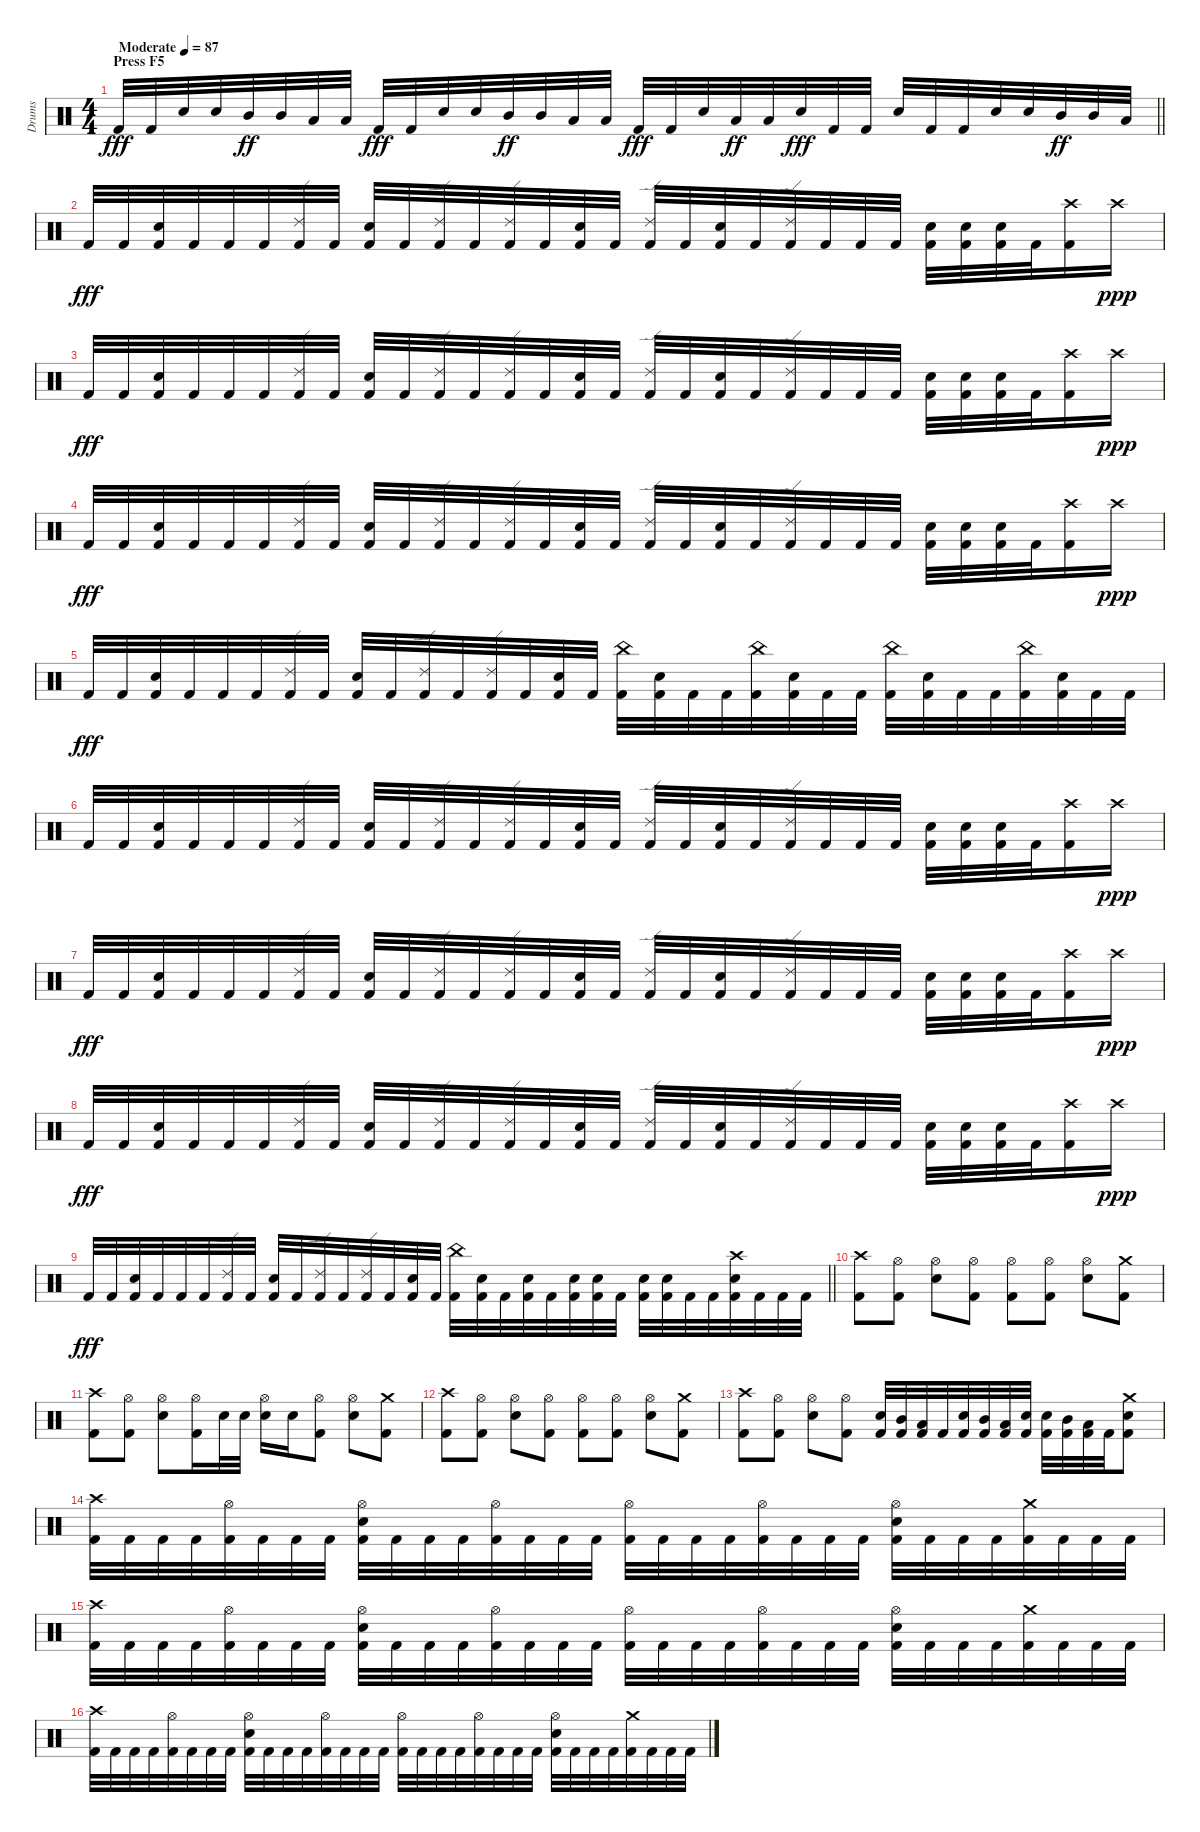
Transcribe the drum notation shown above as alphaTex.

\track ("Drums" "Drums") {instrument percussion}
\staff {score}
\articulation defaults
\ts (4 4)
\section ("" "Press F5")
\tempo (87 "Moderate")
\clef neutral
\barLineRight lightlight
\ks c "Kick (hit) 2".32{dy fff} "Kick (hit) 2".32 "Snare (hit) 2".32 "Snare (hit) 2".32 "Mid Tom (hit)".32{dy ff} "Mid Tom (hit)".32 "Low Tom (hit)".32 "Low Tom (hit)".32 "Kick (hit) 2".32{dy fff} "Kick (hit) 2".32 "Snare (hit) 2".32 "Snare (hit) 2".32 "Mid Tom (hit)".32{dy ff} "Mid Tom (hit)".32 "Low Tom (hit)".32 "Low Tom (hit)".32 "Kick (hit) 2".32{dy fff} "Kick (hit) 2".32 "Snare (hit) 2".32 "Low Tom (hit)".32{dy ff} "Low Tom (hit)".32 "Snare (hit) 2".32{dy fff} "Kick (hit) 2".32 "Kick (hit) 2".32 "Snare (hit) 2".32 "Kick (hit) 2".32 "Kick (hit) 2".32 "Snare (hit) 2".32 "Snare (hit) 2".32 "Mid Tom (hit)".32{dy ff} "Mid Tom (hit)".32 "Low Tom (hit)".32
|
"Kick (hit) 2".32{dy fff} "Kick (hit) 2".32 ("Snare (hit) 2" "Kick (hit) 2").32 "Kick (hit) 2".32 "Kick (hit) 2".32 "Kick (hit) 2".32 ("Ride (edge) 2" "Kick (hit) 2").32 "Kick (hit) 2".32 ("Snare (hit) 2" "Kick (hit) 2").32 "Kick (hit) 2".32 ("Ride (edge) 2" "Kick (hit) 2").32 "Kick (hit) 2".32 ("Ride (edge) 2" "Kick (hit) 2").32 "Kick (hit) 2".32 ("Snare (hit) 2" "Kick (hit) 2").32 "Kick (hit) 2".32 ("Ride (edge) 2" "Kick (hit) 2").32 "Kick (hit) 2".32 ("Snare (hit) 2" "Kick (hit) 2").32 "Kick (hit) 2".32 ("Ride (edge) 2" "Kick (hit) 2").32 "Kick (hit) 2".32 "Kick (hit) 2".32 "Kick (hit) 2".32 ("Snare (hit) 2" "Kick (hit) 2").32 ("Snare (hit) 2" "Kick (hit) 2").32 ("Snare (hit) 2" "Kick (hit) 2").32 "Kick (hit) 2".32 ("Crash high (hit)" "Kick (hit) 2").16 "Crash high (hit)".16{dy ppp} |
"Kick (hit) 2".32{dy fff} "Kick (hit) 2".32 ("Snare (hit) 2" "Kick (hit) 2").32 "Kick (hit) 2".32 "Kick (hit) 2".32 "Kick (hit) 2".32 ("Ride (edge) 2" "Kick (hit) 2").32 "Kick (hit) 2".32 ("Snare (hit) 2" "Kick (hit) 2").32 "Kick (hit) 2".32 ("Ride (edge) 2" "Kick (hit) 2").32 "Kick (hit) 2".32 ("Ride (edge) 2" "Kick (hit) 2").32 "Kick (hit) 2".32 ("Snare (hit) 2" "Kick (hit) 2").32 "Kick (hit) 2".32 ("Ride (edge) 2" "Kick (hit) 2").32 "Kick (hit) 2".32 ("Snare (hit) 2" "Kick (hit) 2").32 "Kick (hit) 2".32 ("Ride (edge) 2" "Kick (hit) 2").32 "Kick (hit) 2".32 "Kick (hit) 2".32 "Kick (hit) 2".32 ("Snare (hit) 2" "Kick (hit) 2").32 ("Snare (hit) 2" "Kick (hit) 2").32 ("Snare (hit) 2" "Kick (hit) 2").32 "Kick (hit) 2".32 ("Crash high (hit)" "Kick (hit) 2").16 "Crash high (hit)".16{dy ppp} |
"Kick (hit) 2".32{dy fff} "Kick (hit) 2".32 ("Snare (hit) 2" "Kick (hit) 2").32 "Kick (hit) 2".32 "Kick (hit) 2".32 "Kick (hit) 2".32 ("Ride (edge) 2" "Kick (hit) 2").32 "Kick (hit) 2".32 ("Snare (hit) 2" "Kick (hit) 2").32 "Kick (hit) 2".32 ("Ride (edge) 2" "Kick (hit) 2").32 "Kick (hit) 2".32 ("Ride (edge) 2" "Kick (hit) 2").32 "Kick (hit) 2".32 ("Snare (hit) 2" "Kick (hit) 2").32 "Kick (hit) 2".32 ("Ride (edge) 2" "Kick (hit) 2").32 "Kick (hit) 2".32 ("Snare (hit) 2" "Kick (hit) 2").32 "Kick (hit) 2".32 ("Ride (edge) 2" "Kick (hit) 2").32 "Kick (hit) 2".32 "Kick (hit) 2".32 "Kick (hit) 2".32 ("Snare (hit) 2" "Kick (hit) 2").32 ("Snare (hit) 2" "Kick (hit) 2").32 ("Snare (hit) 2" "Kick (hit) 2").32 "Kick (hit) 2".32 ("Crash high (hit)" "Kick (hit) 2").16 "Crash high (hit)".16{dy ppp} |
"Kick (hit) 2".32{dy fff} "Kick (hit) 2".32 ("Snare (hit) 2" "Kick (hit) 2").32 "Kick (hit) 2".32 "Kick (hit) 2".32 "Kick (hit) 2".32 ("Ride (edge) 2" "Kick (hit) 2").32 "Kick (hit) 2".32 ("Snare (hit) 2" "Kick (hit) 2").32 "Kick (hit) 2".32 ("Ride (edge) 2" "Kick (hit) 2").32 "Kick (hit) 2".32 ("Ride (edge) 2" "Kick (hit) 2").32 "Kick (hit) 2".32 ("Snare (hit) 2" "Kick (hit) 2").32 "Kick (hit) 2".32 ("China (hit)" "Kick (hit) 2").32 ("Snare (hit) 2" "Kick (hit) 2").32 "Kick (hit) 2".32 "Kick (hit) 2".32 ("China (hit)" "Kick (hit) 2").32 ("Snare (hit) 2" "Kick (hit) 2").32 "Kick (hit) 2".32 "Kick (hit) 2".32 ("China (hit)" "Kick (hit) 2").32 ("Snare (hit) 2" "Kick (hit) 2").32 "Kick (hit) 2".32 "Kick (hit) 2".32 ("China (hit)" "Kick (hit) 2").32 ("Snare (hit) 2" "Kick (hit) 2").32 "Kick (hit) 2".32 "Kick (hit) 2".32 |
"Kick (hit) 2".32 "Kick (hit) 2".32 ("Snare (hit) 2" "Kick (hit) 2").32 "Kick (hit) 2".32 "Kick (hit) 2".32 "Kick (hit) 2".32 ("Ride (edge) 2" "Kick (hit) 2").32 "Kick (hit) 2".32 ("Snare (hit) 2" "Kick (hit) 2").32 "Kick (hit) 2".32 ("Ride (edge) 2" "Kick (hit) 2").32 "Kick (hit) 2".32 ("Ride (edge) 2" "Kick (hit) 2").32 "Kick (hit) 2".32 ("Snare (hit) 2" "Kick (hit) 2").32 "Kick (hit) 2".32 ("Ride (edge) 2" "Kick (hit) 2").32 "Kick (hit) 2".32 ("Snare (hit) 2" "Kick (hit) 2").32 "Kick (hit) 2".32 ("Ride (edge) 2" "Kick (hit) 2").32 "Kick (hit) 2".32 "Kick (hit) 2".32 "Kick (hit) 2".32 ("Snare (hit) 2" "Kick (hit) 2").32 ("Snare (hit) 2" "Kick (hit) 2").32 ("Snare (hit) 2" "Kick (hit) 2").32 "Kick (hit) 2".32 ("Crash high (hit)" "Kick (hit) 2").16 "Crash high (hit)".16{dy ppp} |
"Kick (hit) 2".32{dy fff} "Kick (hit) 2".32 ("Snare (hit) 2" "Kick (hit) 2").32 "Kick (hit) 2".32 "Kick (hit) 2".32 "Kick (hit) 2".32 ("Ride (edge) 2" "Kick (hit) 2").32 "Kick (hit) 2".32 ("Snare (hit) 2" "Kick (hit) 2").32 "Kick (hit) 2".32 ("Ride (edge) 2" "Kick (hit) 2").32 "Kick (hit) 2".32 ("Ride (edge) 2" "Kick (hit) 2").32 "Kick (hit) 2".32 ("Snare (hit) 2" "Kick (hit) 2").32 "Kick (hit) 2".32 ("Ride (edge) 2" "Kick (hit) 2").32 "Kick (hit) 2".32 ("Snare (hit) 2" "Kick (hit) 2").32 "Kick (hit) 2".32 ("Ride (edge) 2" "Kick (hit) 2").32 "Kick (hit) 2".32 "Kick (hit) 2".32 "Kick (hit) 2".32 ("Snare (hit) 2" "Kick (hit) 2").32 ("Snare (hit) 2" "Kick (hit) 2").32 ("Snare (hit) 2" "Kick (hit) 2").32 "Kick (hit) 2".32 ("Crash high (hit)" "Kick (hit) 2").16 "Crash high (hit)".16{dy ppp} |
"Kick (hit) 2".32{dy fff} "Kick (hit) 2".32 ("Snare (hit) 2" "Kick (hit) 2").32 "Kick (hit) 2".32 "Kick (hit) 2".32 "Kick (hit) 2".32 ("Ride (edge) 2" "Kick (hit) 2").32 "Kick (hit) 2".32 ("Snare (hit) 2" "Kick (hit) 2").32 "Kick (hit) 2".32 ("Ride (edge) 2" "Kick (hit) 2").32 "Kick (hit) 2".32 ("Ride (edge) 2" "Kick (hit) 2").32 "Kick (hit) 2".32 ("Snare (hit) 2" "Kick (hit) 2").32 "Kick (hit) 2".32 ("Ride (edge) 2" "Kick (hit) 2").32 "Kick (hit) 2".32 ("Snare (hit) 2" "Kick (hit) 2").32 "Kick (hit) 2".32 ("Ride (edge) 2" "Kick (hit) 2").32 "Kick (hit) 2".32 "Kick (hit) 2".32 "Kick (hit) 2".32 ("Snare (hit) 2" "Kick (hit) 2").32 ("Snare (hit) 2" "Kick (hit) 2").32 ("Snare (hit) 2" "Kick (hit) 2").32 "Kick (hit) 2".32 ("Crash high (hit)" "Kick (hit) 2").16 "Crash high (hit)".16{dy ppp} |
\barLineRight lightlight "Kick (hit) 2".32{dy fff} "Kick (hit) 2".32
("Snare (hit) 2" "Kick (hit) 2").32 "Kick (hit) 2".32 "Kick (hit) 2".32 "Kick (hit) 2".32 ("Ride (edge) 2" "Kick (hit) 2").32 "Kick (hit) 2".32 ("Snare (hit) 2" "Kick (hit) 2").32 "Kick (hit) 2".32 ("Ride (edge) 2" "Kick (hit) 2").32 "Kick (hit) 2".32 ("Ride (edge) 2" "Kick (hit) 2").32 "Kick (hit) 2".32 ("Snare (hit) 2" "Kick (hit) 2").32 "Kick (hit) 2".32 ("China (hit)" "Kick (hit) 2").32 ("Snare (hit) 2" "Kick (hit) 2").32 "Kick (hit) 2".32 ("Snare (hit) 2" "Kick (hit) 2").32 "Kick (hit) 2".32 ("Snare (hit) 2" "Kick (hit) 2").32 ("Snare (hit) 2" "Kick (hit) 2").32 "Kick (hit) 2".32 ("Snare (hit) 2" "Kick (hit) 2").32 ("Snare (hit) 2" "Kick (hit) 2").32 "Kick (hit) 2".32 "Kick (hit) 2".32 ("Crash high (hit)" "Snare (hit) 2" "Kick (hit) 2").32 "Kick (hit) 2".32 "Kick (hit) 2".32 "Kick (hit) 2".32 |
\section ("" "")
("Crash high (hit)" "Kick (hit) 2").8 ("Hi-Hat (open)" "Kick (hit) 2").8 ("Hi-Hat (open)" "Snare (hit) 2").8 ("Hi-Hat (open)" "Kick (hit) 2").8 ("Hi-Hat (open)" "Kick (hit) 2").8 ("Hi-Hat (open)" "Kick (hit) 2").8 ("Hi-Hat (open)" "Snare (hit) 2").8 ("Crash medium (hit)" "Kick (hit) 2").8 |
("Crash high (hit)" "Kick (hit) 2").8 ("Hi-Hat (open)" "Kick (hit) 2").8 ("Hi-Hat (open)" "Snare (hit) 2").8 ("Hi-Hat (open)" "Kick (hit) 2").16 "Snare (hit) 2".32 "Snare (hit) 2".32 ("Hi-Hat (open)" "Snare (hit) 2").16 "Snare (hit) 2".16 ("Hi-Hat (open)" "Kick (hit) 2").8 ("Hi-Hat (open)" "Snare (hit) 2").8 ("Crash medium (hit)" "Kick (hit) 2").8 |
("Crash high (hit)" "Kick (hit) 2").8 ("Hi-Hat (open)" "Kick (hit) 2").8 ("Hi-Hat (open)" "Snare (hit) 2").8 ("Hi-Hat (open)" "Kick (hit) 2").8 ("Hi-Hat (open)" "Kick (hit) 2").8 ("Hi-Hat (open)" "Kick (hit) 2").8 ("Hi-Hat (open)" "Snare (hit) 2").8 ("Crash medium (hit)" "Kick (hit) 2").8 |
("Crash high (hit)" "Kick (hit) 2").8 ("Hi-Hat (open)" "Kick (hit) 2").8 ("Hi-Hat (open)" "Snare (hit) 2").8 ("Hi-Hat (open)" "Kick (hit) 2").8 ("Snare (hit) 2" "Kick (hit) 2").32 ("Mid Tom (hit)" "Kick (hit) 2").32 ("Low Tom (hit)" "Kick (hit) 2").32 "Kick (hit) 2".32 ("Snare (hit) 2" "Kick (hit) 2").32 ("Mid Tom (hit)" "Kick (hit) 2").32 ("Low Tom (hit)" "Kick (hit) 2").32 ("Snare (hit) 2" "Kick (hit) 2").32 ("Snare (hit) 2" "Kick (hit) 2").32 ("Mid Tom (hit)" "Kick (hit) 2").32 ("Low Tom (hit)" "Kick (hit) 2").32 "Kick (hit) 2".32 ("Crash medium (hit)" "Snare (hit) 2" "Kick (hit) 2").8 |
("Crash high (hit)" "Kick (hit) 2").32 "Kick (hit) 2".32 "Kick (hit) 2".32 "Kick (hit) 2".32 ("Hi-Hat (open)" "Kick (hit) 2").32 "Kick (hit) 2".32 "Kick (hit) 2".32 "Kick (hit) 2".32 ("Hi-Hat (open)" "Snare (hit) 2" "Kick (hit) 2").32 "Kick (hit) 2".32 "Kick (hit) 2".32 "Kick (hit) 2".32 ("Hi-Hat (open)" "Kick (hit) 2").32 "Kick (hit) 2".32 "Kick (hit) 2".32 "Kick (hit) 2".32 ("Hi-Hat (open)" "Kick (hit) 2").32 "Kick (hit) 2".32 "Kick (hit) 2".32 "Kick (hit) 2".32 ("Hi-Hat (open)" "Kick (hit) 2").32 "Kick (hit) 2".32 "Kick (hit) 2".32 "Kick (hit) 2".32 ("Hi-Hat (open)" "Snare (hit) 2" "Kick (hit) 2").32 "Kick (hit) 2".32 "Kick (hit) 2".32 "Kick (hit) 2".32 ("Crash medium (hit)" "Kick (hit) 2").32 "Kick (hit) 2".32 "Kick (hit) 2".32 "Kick (hit) 2".32 |
("Crash high (hit)" "Kick (hit) 2").32 "Kick (hit) 2".32 "Kick (hit) 2".32 "Kick (hit) 2".32 ("Hi-Hat (open)" "Kick (hit) 2").32 "Kick (hit) 2".32 "Kick (hit) 2".32 "Kick (hit) 2".32 ("Hi-Hat (open)" "Snare (hit) 2" "Kick (hit) 2").32 "Kick (hit) 2".32 "Kick (hit) 2".32 "Kick (hit) 2".32 ("Hi-Hat (open)" "Kick (hit) 2").32 "Kick (hit) 2".32 "Kick (hit) 2".32 "Kick (hit) 2".32 ("Hi-Hat (open)" "Kick (hit) 2").32 "Kick (hit) 2".32 "Kick (hit) 2".32 "Kick (hit) 2".32 ("Hi-Hat (open)" "Kick (hit) 2").32 "Kick (hit) 2".32 "Kick (hit) 2".32 "Kick (hit) 2".32 ("Hi-Hat (open)" "Snare (hit) 2" "Kick (hit) 2").32 "Kick (hit) 2".32 "Kick (hit) 2".32 "Kick (hit) 2".32 ("Crash medium (hit)" "Kick (hit) 2").32 "Kick (hit) 2".32 "Kick (hit) 2".32 "Kick (hit) 2".32 |
("Crash high (hit)" "Kick (hit) 2").32 "Kick (hit) 2".32 "Kick (hit) 2".32 "Kick (hit) 2".32 ("Hi-Hat (open)" "Kick (hit) 2").32 "Kick (hit) 2".32 "Kick (hit) 2".32 "Kick (hit) 2".32 ("Hi-Hat (open)" "Snare (hit) 2" "Kick (hit) 2").32 "Kick (hit) 2".32 "Kick (hit) 2".32 "Kick (hit) 2".32 ("Hi-Hat (open)" "Kick (hit) 2").32 "Kick (hit) 2".32 "Kick (hit) 2".32 "Kick (hit) 2".32 ("Hi-Hat (open)" "Kick (hit) 2").32 "Kick (hit) 2".32 "Kick (hit) 2".32 "Kick (hit) 2".32 ("Hi-Hat (open)" "Kick (hit) 2").32 "Kick (hit) 2".32 "Kick (hit) 2".32 "Kick (hit) 2".32 ("Hi-Hat (open)" "Snare (hit) 2" "Kick (hit) 2").32 "Kick (hit) 2".32 "Kick (hit) 2".32 "Kick (hit) 2".32 ("Crash medium (hit)" "Kick (hit) 2").32 "Kick (hit) 2".32 "Kick (hit) 2".32 "Kick (hit) 2".32
